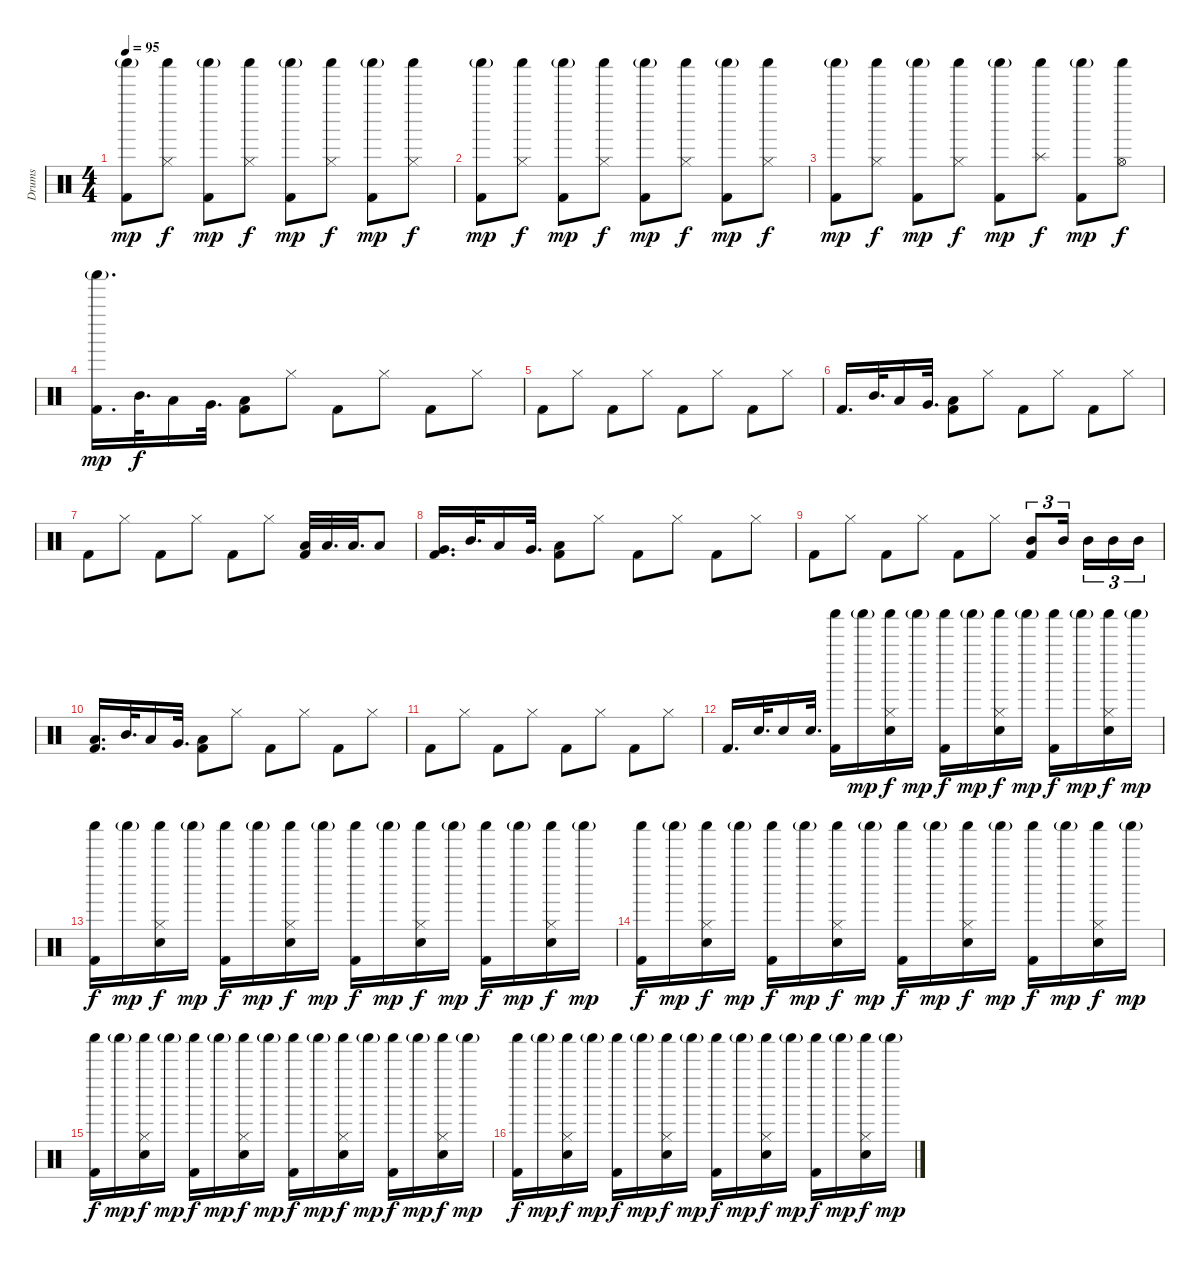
\track ("Drums" "Drums") {instrument percussion}
\staff {score}
\articulation defaults
\ts (4 4)
\tempo 95
\clef neutral
\ks c
("Shaker (hit)"{g} "Kick (hit) 2").8{dy mp} ("Shaker (hit)" "Hi-Hat (closed)").8{dy f} ("Shaker (hit)"{g} "Kick (hit) 2").8{dy mp} ("Shaker (hit)" "Hi-Hat (closed)").8{dy f} ("Shaker (hit)"{g} "Kick (hit) 2").8{dy mp} ("Shaker (hit)" "Hi-Hat (closed)").8{dy f} ("Shaker (hit)"{g} "Kick (hit) 2").8{dy mp} ("Shaker (hit)" "Hi-Hat (closed)").8{dy f} |
("Shaker (hit)"{g} "Kick (hit) 2").8{dy mp} ("Shaker (hit)" "Hi-Hat (closed)").8{dy f} ("Shaker (hit)"{g} "Kick (hit) 2").8{dy mp} ("Shaker (hit)" "Hi-Hat (closed)").8{dy f} ("Shaker (hit)"{g} "Kick (hit) 2").8{dy mp} ("Shaker (hit)" "Hi-Hat (closed)").8{dy f} ("Shaker (hit)"{g} "Kick (hit) 2").8{dy mp} ("Shaker (hit)" "Hi-Hat (closed)").8{dy f} |
("Shaker (hit)"{g} "Kick (hit) 2").8{dy mp} ("Shaker (hit)" "Hi-Hat (closed)").8{dy f} ("Shaker (hit)"{g} "Kick (hit) 2").8{dy mp} ("Shaker (hit)" "Hi-Hat (closed)").8{dy f} ("Shaker (hit)"{g} "Kick (hit) 2").8{dy mp} ("Shaker (hit)" "Splash (hit)").8{dy f} ("Shaker (hit)"{g} "Kick (hit) 2").8{dy mp} ("Shaker (hit)" "Hi-Hat (open)").8{dy f} |
("Shaker (hit)"{g} "Kick (hit) 2").16{d dy mp} "Mid Tom (hit)".32{d dy f} "Low Tom (hit)".16 "Very Low Tom (hit)".32{d} ("Low Floor Tom (hit)" "Kick (hit) 2").8 "Hi-Hat (closed)".8 "Kick (hit) 2".8 "Hi-Hat (closed)".8 "Kick (hit) 2".8 "Hi-Hat (closed)".8 |
"Kick (hit) 2".8 "Hi-Hat (closed)".8 "Kick (hit) 2".8 "Hi-Hat (closed)".8 "Kick (hit) 2".8 "Hi-Hat (closed)".8 "Kick (hit) 2".8 "Hi-Hat (closed)".8 |
"Kick (hit) 2".16{d} "Mid Tom (hit)".32{d} "Low Tom (hit)".16 "Very Low Tom (hit)".32{d} ("Low Floor Tom (hit)" "Kick (hit) 2").8 "Hi-Hat (closed)".8 "Kick (hit) 2".8 "Hi-Hat (closed)".8 "Kick (hit) 2".8 "Hi-Hat (closed)".8 |
"Kick (hit) 2".8 "Hi-Hat (closed)".8 "Kick (hit) 2".8 "Hi-Hat (closed)".8 "Kick (hit) 2".8 "Hi-Hat (closed)".8 ("Low Tom (hit)" "Kick (hit) 2").32 "Low Tom (hit)".32{d} "Low Tom (hit)".32{d} "Low Tom (hit)".8 |
("Very Low Tom (hit)" "Kick (hit) 2").16{d} "Mid Tom (hit)".32{d} "Low Tom (hit)".16 "Very Low Tom (hit)".32{d} ("Low Floor Tom (hit)" "Kick (hit) 2").8 "Hi-Hat (closed)".8 "Kick (hit) 2".8 "Hi-Hat (closed)".8 "Kick (hit) 2".8 "Hi-Hat (closed)".8 |
"Kick (hit) 2".8 "Hi-Hat (closed)".8 "Kick (hit) 2".8 "Hi-Hat (closed)".8 "Kick (hit) 2".8 "Hi-Hat (closed)".8 ("Mid Tom (hit)" "Kick (hit) 2").8{tu (3 2)} "Mid Tom (hit)".16{tu (3 2) beam splitsecondary} "Mid Tom (hit)".16{tu (3 2)} "Mid Tom (hit)".16{tu (3 2)} "Mid Tom (hit)".16{tu (3 2)} |
("Low Floor Tom (hit)" "Kick (hit) 2").16{d} "Mid Tom (hit)".32{d} "Low Tom (hit)".16 "Very Low Tom (hit)".32{d} ("Low Floor Tom (hit)" "Kick (hit) 2").8 "Hi-Hat (closed)".8 "Kick (hit) 2".8 "Hi-Hat (closed)".8 "Kick (hit) 2".8 "Hi-Hat (closed)".8 |
"Kick (hit) 2".8 "Hi-Hat (closed)".8 "Kick (hit) 2".8 "Hi-Hat (closed)".8 "Kick (hit) 2".8 "Hi-Hat (closed)".8 "Kick (hit) 2".8 "Hi-Hat (closed)".8 |
"Kick (hit) 2".16{d} "Snare (hit) 2".32{d} "Snare (hit) 2".16 "Snare (hit) 2".32{d} ("Shaker (hit)" "Kick (hit) 2").16 "Shaker (hit)"{g}.16{dy mp} ("Shaker (hit)" "Hi-Hat (closed)" "Snare (hit) 2").16{dy f} "Shaker (hit)"{g}.16{dy mp} ("Shaker (hit)" "Kick (hit) 2").16{dy f} "Shaker (hit)"{g}.16{dy mp} ("Shaker (hit)" "Hi-Hat (closed)" "Snare (hit) 2").16{dy f} "Shaker (hit)"{g}.16{dy mp} ("Shaker (hit)" "Kick (hit) 2").16{dy f} "Shaker (hit)"{g}.16{dy mp} ("Shaker (hit)" "Hi-Hat (closed)" "Snare (hit) 2").16{dy f} "Shaker (hit)"{g}.16{dy mp} |
("Shaker (hit)" "Kick (hit) 2").16{dy f} "Shaker (hit)"{g}.16{dy mp} ("Shaker (hit)" "Hi-Hat (closed)" "Snare (hit) 2").16{dy f} "Shaker (hit)"{g}.16{dy mp} ("Shaker (hit)" "Kick (hit) 2").16{dy f} "Shaker (hit)"{g}.16{dy mp} ("Shaker (hit)" "Hi-Hat (closed)" "Snare (hit) 2").16{dy f} "Shaker (hit)"{g}.16{dy mp} ("Shaker (hit)" "Kick (hit) 2").16{dy f} "Shaker (hit)"{g}.16{dy mp} ("Shaker (hit)" "Hi-Hat (closed)" "Snare (hit) 2").16{dy f} "Shaker (hit)"{g}.16{dy mp} ("Shaker (hit)" "Kick (hit) 2").16{dy f} "Shaker (hit)"{g}.16{dy mp} ("Shaker (hit)" "Hi-Hat (closed)" "Snare (hit) 2").16{dy f} "Shaker (hit)"{g}.16{dy mp} |
("Shaker (hit)" "Kick (hit) 2").16{dy f} "Shaker (hit)"{g}.16{dy mp} ("Shaker (hit)" "Hi-Hat (closed)" "Snare (hit) 2").16{dy f} "Shaker (hit)"{g}.16{dy mp} ("Shaker (hit)" "Kick (hit) 2").16{dy f} "Shaker (hit)"{g}.16{dy mp} ("Shaker (hit)" "Hi-Hat (closed)" "Snare (hit) 2").16{dy f} "Shaker (hit)"{g}.16{dy mp} ("Shaker (hit)" "Kick (hit) 2").16{dy f} "Shaker (hit)"{g}.16{dy mp} ("Shaker (hit)" "Hi-Hat (closed)" "Snare (hit) 2").16{dy f} "Shaker (hit)"{g}.16{dy mp} ("Shaker (hit)" "Kick (hit) 2").16{dy f} "Shaker (hit)"{g}.16{dy mp} ("Shaker (hit)" "Hi-Hat (closed)" "Snare (hit) 2").16{dy f} "Shaker (hit)"{g}.16{dy mp} |
("Shaker (hit)" "Kick (hit) 2").16{dy f} "Shaker (hit)"{g}.16{dy mp} ("Shaker (hit)" "Hi-Hat (closed)" "Snare (hit) 2").16{dy f} "Shaker (hit)"{g}.16{dy mp} ("Shaker (hit)" "Kick (hit) 2").16{dy f} "Shaker (hit)"{g}.16{dy mp} ("Shaker (hit)" "Hi-Hat (closed)" "Snare (hit) 2").16{dy f} "Shaker (hit)"{g}.16{dy mp} ("Shaker (hit)" "Kick (hit) 2").16{dy f} "Shaker (hit)"{g}.16{dy mp} ("Shaker (hit)" "Hi-Hat (closed)" "Snare (hit) 2").16{dy f} "Shaker (hit)"{g}.16{dy mp} ("Shaker (hit)" "Kick (hit) 2").16{dy f} "Shaker (hit)"{g}.16{dy mp} ("Shaker (hit)" "Hi-Hat (closed)" "Snare (hit) 2").16{dy f} "Shaker (hit)"{g}.16{dy mp} |
("Shaker (hit)" "Kick (hit) 2").16{dy f} "Shaker (hit)"{g}.16{dy mp} ("Shaker (hit)" "Hi-Hat (closed)" "Snare (hit) 2").16{dy f} "Shaker (hit)"{g}.16{dy mp} ("Shaker (hit)" "Kick (hit) 2").16{dy f} "Shaker (hit)"{g}.16{dy mp} ("Shaker (hit)" "Hi-Hat (closed)" "Snare (hit) 2").16{dy f} "Shaker (hit)"{g}.16{dy mp} ("Shaker (hit)" "Kick (hit) 2").16{dy f} "Shaker (hit)"{g}.16{dy mp} ("Shaker (hit)" "Hi-Hat (closed)" "Snare (hit) 2").16{dy f} "Shaker (hit)"{g}.16{dy mp} ("Shaker (hit)" "Kick (hit) 2").16{dy f} "Shaker (hit)"{g}.16{dy mp} ("Shaker (hit)" "Hi-Hat (closed)" "Snare (hit) 2").16{dy f} "Shaker (hit)"{g}.16{dy mp}
